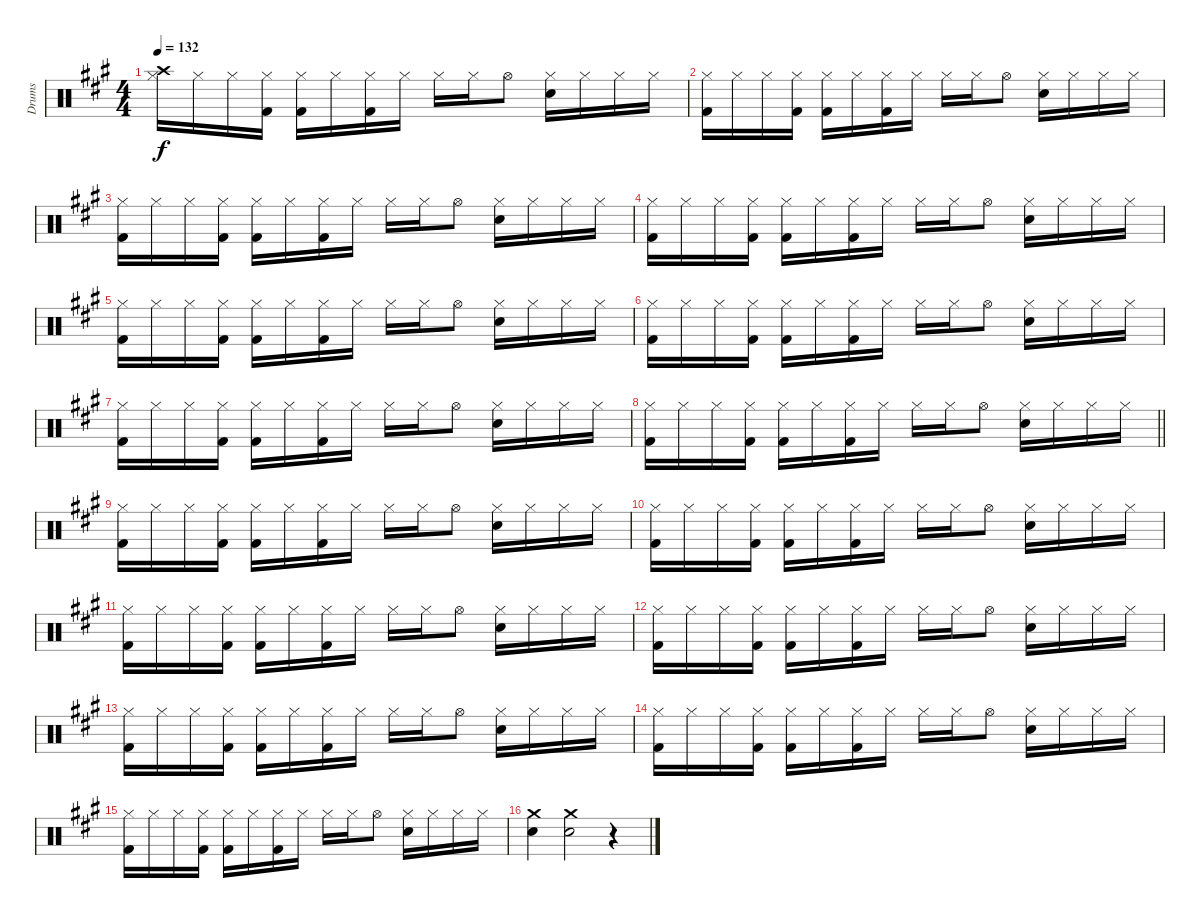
\track ("Drums" "Drums") {instrument percussion}
\staff {score}
\articulation defaults
\ts (4 4)
\tempo 132
\clef neutral
\ks a
("Crash high (hit)" "Hi-Hat (closed)").16{dy f} "Hi-Hat (closed)".16 "Hi-Hat (closed)".16 ("Kick (hit) 2" "Hi-Hat (closed)").16 ("Kick (hit) 2" "Hi-Hat (closed)").16 "Hi-Hat (closed)".16 ("Kick (hit) 2" "Hi-Hat (closed)").16 "Hi-Hat (closed)".16 "Hi-Hat (closed)".16 "Hi-Hat (closed)".16 "Hi-Hat (open)".8 ("Snare (hit) 2" "Hi-Hat (closed)").16 "Hi-Hat (closed)".16 "Hi-Hat (closed)".16 "Hi-Hat (closed)".16 |
("Kick (hit) 2" "Hi-Hat (closed)").16 "Hi-Hat (closed)".16 "Hi-Hat (closed)".16 ("Kick (hit) 2" "Hi-Hat (closed)").16 ("Kick (hit) 2" "Hi-Hat (closed)").16 "Hi-Hat (closed)".16 ("Kick (hit) 2" "Hi-Hat (closed)").16 "Hi-Hat (closed)".16 "Hi-Hat (closed)".16 "Hi-Hat (closed)".16 "Hi-Hat (open)".8 ("Snare (hit) 2" "Hi-Hat (closed)").16 "Hi-Hat (closed)".16 "Hi-Hat (closed)".16 "Hi-Hat (closed)".16 |
("Kick (hit) 2" "Hi-Hat (closed)").16 "Hi-Hat (closed)".16 "Hi-Hat (closed)".16 ("Kick (hit) 2" "Hi-Hat (closed)").16 ("Kick (hit) 2" "Hi-Hat (closed)").16 "Hi-Hat (closed)".16 ("Kick (hit) 2" "Hi-Hat (closed)").16 "Hi-Hat (closed)".16 "Hi-Hat (closed)".16 "Hi-Hat (closed)".16 "Hi-Hat (open)".8 ("Snare (hit) 2" "Hi-Hat (closed)").16 "Hi-Hat (closed)".16 "Hi-Hat (closed)".16 "Hi-Hat (closed)".16 |
("Kick (hit) 2" "Hi-Hat (closed)").16 "Hi-Hat (closed)".16 "Hi-Hat (closed)".16 ("Kick (hit) 2" "Hi-Hat (closed)").16 ("Kick (hit) 2" "Hi-Hat (closed)").16 "Hi-Hat (closed)".16 ("Kick (hit) 2" "Hi-Hat (closed)").16 "Hi-Hat (closed)".16 "Hi-Hat (closed)".16 "Hi-Hat (closed)".16 "Hi-Hat (open)".8 ("Snare (hit) 2" "Hi-Hat (closed)").16 "Hi-Hat (closed)".16 "Hi-Hat (closed)".16 "Hi-Hat (closed)".16 |
("Kick (hit) 2" "Hi-Hat (closed)").16 "Hi-Hat (closed)".16 "Hi-Hat (closed)".16 ("Kick (hit) 2" "Hi-Hat (closed)").16 ("Kick (hit) 2" "Hi-Hat (closed)").16 "Hi-Hat (closed)".16 ("Kick (hit) 2" "Hi-Hat (closed)").16 "Hi-Hat (closed)".16 "Hi-Hat (closed)".16 "Hi-Hat (closed)".16 "Hi-Hat (open)".8 ("Snare (hit) 2" "Hi-Hat (closed)").16 "Hi-Hat (closed)".16 "Hi-Hat (closed)".16 "Hi-Hat (closed)".16 |
("Kick (hit) 2" "Hi-Hat (closed)").16 "Hi-Hat (closed)".16 "Hi-Hat (closed)".16 ("Kick (hit) 2" "Hi-Hat (closed)").16 ("Kick (hit) 2" "Hi-Hat (closed)").16 "Hi-Hat (closed)".16 ("Kick (hit) 2" "Hi-Hat (closed)").16 "Hi-Hat (closed)".16 "Hi-Hat (closed)".16 "Hi-Hat (closed)".16 "Hi-Hat (open)".8 ("Snare (hit) 2" "Hi-Hat (closed)").16 "Hi-Hat (closed)".16 "Hi-Hat (closed)".16 "Hi-Hat (closed)".16 |
("Kick (hit) 2" "Hi-Hat (closed)").16 "Hi-Hat (closed)".16 "Hi-Hat (closed)".16 ("Kick (hit) 2" "Hi-Hat (closed)").16 ("Kick (hit) 2" "Hi-Hat (closed)").16 "Hi-Hat (closed)".16 ("Kick (hit) 2" "Hi-Hat (closed)").16 "Hi-Hat (closed)".16 "Hi-Hat (closed)".16 "Hi-Hat (closed)".16 "Hi-Hat (open)".8 ("Snare (hit) 2" "Hi-Hat (closed)").16 "Hi-Hat (closed)".16 "Hi-Hat (closed)".16 "Hi-Hat (closed)".16 |
\barLineRight lightlight
("Kick (hit) 2" "Hi-Hat (closed)").16 "Hi-Hat (closed)".16 "Hi-Hat (closed)".16 ("Kick (hit) 2" "Hi-Hat (closed)").16 ("Kick (hit) 2" "Hi-Hat (closed)").16 "Hi-Hat (closed)".16 ("Kick (hit) 2" "Hi-Hat (closed)").16 "Hi-Hat (closed)".16 "Hi-Hat (closed)".16 "Hi-Hat (closed)".16 "Hi-Hat (open)".8 ("Snare (hit) 2" "Hi-Hat (closed)").16 "Hi-Hat (closed)".16 "Hi-Hat (closed)".16 "Hi-Hat (closed)".16 |
("Kick (hit) 2" "Hi-Hat (closed)").16 "Hi-Hat (closed)".16 "Hi-Hat (closed)".16 ("Kick (hit) 2" "Hi-Hat (closed)").16 ("Kick (hit) 2" "Hi-Hat (closed)").16 "Hi-Hat (closed)".16 ("Kick (hit) 2" "Hi-Hat (closed)").16 "Hi-Hat (closed)".16 "Hi-Hat (closed)".16 "Hi-Hat (closed)".16 "Hi-Hat (open)".8 ("Snare (hit) 2" "Hi-Hat (closed)").16 "Hi-Hat (closed)".16 "Hi-Hat (closed)".16 "Hi-Hat (closed)".16 |
("Kick (hit) 2" "Hi-Hat (closed)").16 "Hi-Hat (closed)".16 "Hi-Hat (closed)".16 ("Kick (hit) 2" "Hi-Hat (closed)").16 ("Kick (hit) 2" "Hi-Hat (closed)").16 "Hi-Hat (closed)".16 ("Kick (hit) 2" "Hi-Hat (closed)").16 "Hi-Hat (closed)".16 "Hi-Hat (closed)".16 "Hi-Hat (closed)".16 "Hi-Hat (open)".8 ("Snare (hit) 2" "Hi-Hat (closed)").16 "Hi-Hat (closed)".16 "Hi-Hat (closed)".16 "Hi-Hat (closed)".16 |
("Kick (hit) 2" "Hi-Hat (closed)").16 "Hi-Hat (closed)".16 "Hi-Hat (closed)".16 ("Kick (hit) 2" "Hi-Hat (closed)").16 ("Kick (hit) 2" "Hi-Hat (closed)").16 "Hi-Hat (closed)".16 ("Kick (hit) 2" "Hi-Hat (closed)").16 "Hi-Hat (closed)".16 "Hi-Hat (closed)".16 "Hi-Hat (closed)".16 "Hi-Hat (open)".8 ("Snare (hit) 2" "Hi-Hat (closed)").16 "Hi-Hat (closed)".16 "Hi-Hat (closed)".16 "Hi-Hat (closed)".16 |
("Kick (hit) 2" "Hi-Hat (closed)").16 "Hi-Hat (closed)".16 "Hi-Hat (closed)".16 ("Kick (hit) 2" "Hi-Hat (closed)").16 ("Kick (hit) 2" "Hi-Hat (closed)").16 "Hi-Hat (closed)".16 ("Kick (hit) 2" "Hi-Hat (closed)").16 "Hi-Hat (closed)".16 "Hi-Hat (closed)".16 "Hi-Hat (closed)".16 "Hi-Hat (open)".8 ("Snare (hit) 2" "Hi-Hat (closed)").16 "Hi-Hat (closed)".16 "Hi-Hat (closed)".16 "Hi-Hat (closed)".16 |
("Kick (hit) 2" "Hi-Hat (closed)").16 "Hi-Hat (closed)".16 "Hi-Hat (closed)".16 ("Kick (hit) 2" "Hi-Hat (closed)").16 ("Kick (hit) 2" "Hi-Hat (closed)").16 "Hi-Hat (closed)".16 ("Kick (hit) 2" "Hi-Hat (closed)").16 "Hi-Hat (closed)".16 "Hi-Hat (closed)".16 "Hi-Hat (closed)".16 "Hi-Hat (open)".8 ("Snare (hit) 2" "Hi-Hat (closed)").16 "Hi-Hat (closed)".16 "Hi-Hat (closed)".16 "Hi-Hat (closed)".16 |
("Kick (hit) 2" "Hi-Hat (closed)").16 "Hi-Hat (closed)".16 "Hi-Hat (closed)".16 ("Kick (hit) 2" "Hi-Hat (closed)").16 ("Kick (hit) 2" "Hi-Hat (closed)").16 "Hi-Hat (closed)".16 ("Kick (hit) 2" "Hi-Hat (closed)").16 "Hi-Hat (closed)".16 "Hi-Hat (closed)".16 "Hi-Hat (closed)".16 "Hi-Hat (open)".8 ("Snare (hit) 2" "Hi-Hat (closed)").16 "Hi-Hat (closed)".16 "Hi-Hat (closed)".16 "Hi-Hat (closed)".16 |
("Kick (hit) 2" "Hi-Hat (closed)").16 "Hi-Hat (closed)".16 "Hi-Hat (closed)".16 ("Kick (hit) 2" "Hi-Hat (closed)").16 ("Kick (hit) 2" "Hi-Hat (closed)").16 "Hi-Hat (closed)".16 ("Kick (hit) 2" "Hi-Hat (closed)").16 "Hi-Hat (closed)".16 "Hi-Hat (closed)".16 "Hi-Hat (closed)".16 "Hi-Hat (open)".8 ("Snare (hit) 2" "Hi-Hat (closed)").16 "Hi-Hat (closed)".16 "Hi-Hat (closed)".16 "Hi-Hat (closed)".16 |
("Snare (hit) 2" "Crash medium (hit)").4 ("Snare (hit) 2" "Crash medium (hit)").2 r.4
